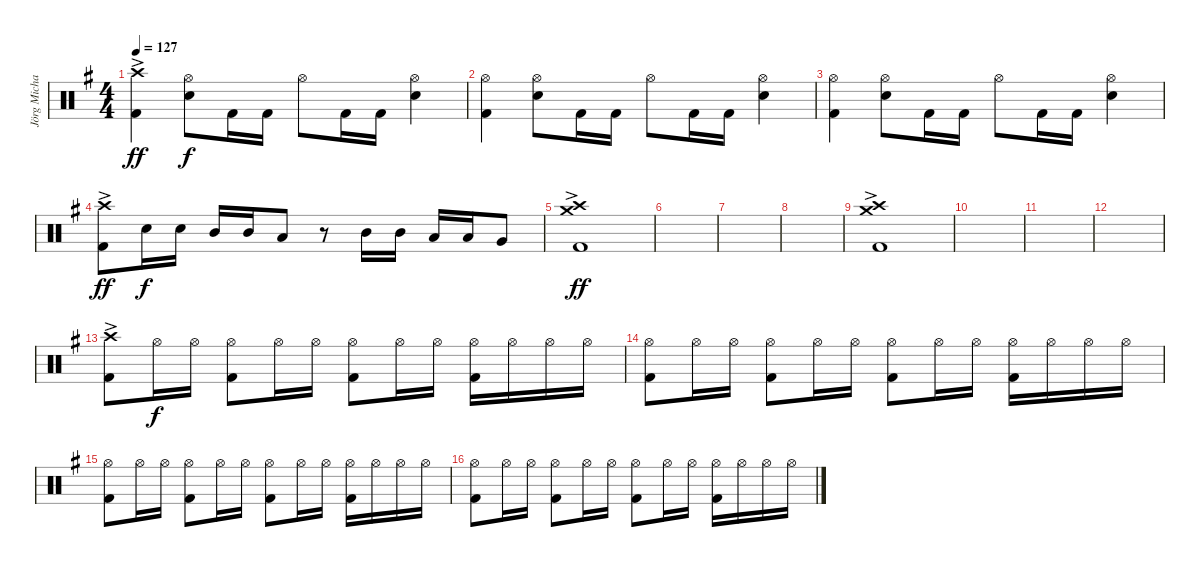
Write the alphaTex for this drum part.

\track ("Jörg Michael" "Jörg Micha") {instrument percussion}
\staff {score}
\articulation defaults
\ts (4 4)
\tempo 127
\clef neutral
\ks g
("Crash high (hit)"{ac} "Kick (hit) 2"{ac}).4{dy ff} ("Hi-Hat (open)" "Electric Snare (hit)").8{dy f} "Kick (hit) 2".16 "Kick (hit) 2".16 "Hi-Hat (open)".8 "Kick (hit) 2".16 "Kick (hit) 2".16 ("Hi-Hat (open)" "Electric Snare (hit)").4 |
("Hi-Hat (open)" "Kick (hit) 2").4 ("Hi-Hat (open)" "Electric Snare (hit)").8 "Kick (hit) 2".16 "Kick (hit) 2".16 "Hi-Hat (open)".8 "Kick (hit) 2".16 "Kick (hit) 2".16 ("Hi-Hat (open)" "Electric Snare (hit)").4 |
("Hi-Hat (open)" "Kick (hit) 2").4 ("Hi-Hat (open)" "Electric Snare (hit)").8 "Kick (hit) 2".16 "Kick (hit) 2".16 "Hi-Hat (open)".8 "Kick (hit) 2".16 "Kick (hit) 2".16 ("Hi-Hat (open)" "Electric Snare (hit)").4 |
("Crash high (hit)"{ac} "Kick (hit) 2"{ac}).8{dy ff} "Electric Snare (hit)".16{dy f} "Electric Snare (hit)".16 "Mid Tom (hit)".16 "Mid Tom (hit)".16 "Low Tom (hit)".8 r.8 "Mid Tom (hit)".16 "Mid Tom (hit)".16 "Low Tom (hit)".16 "Low Tom (hit)".16 "Very Low Tom (hit)".8 |
("Crash high (hit)"{ac} "Kick (hit) 2"{ac} "Crash medium (hit)"{ac}).1{dy ff} |
|
|
|
("Crash high (hit)"{ac} "Kick (hit) 2"{ac} "Crash medium (hit)"{ac}).1 |
|
|
|
("Crash high (hit)"{ac} "Kick (hit) 2"{ac}).8 "Hi-Hat (open)".16{dy f} "Hi-Hat (open)".16 ("Hi-Hat (open)" "Kick (hit) 2").8 "Hi-Hat (open)".16 "Hi-Hat (open)".16 ("Hi-Hat (open)" "Kick (hit) 2").8 "Hi-Hat (open)".16 "Hi-Hat (open)".16 ("Hi-Hat (open)" "Kick (hit) 2").16 "Hi-Hat (open)".16 "Hi-Hat (open)".16 "Hi-Hat (open)".16 |
("Hi-Hat (open)" "Kick (hit) 2").8 "Hi-Hat (open)".16 "Hi-Hat (open)".16 ("Hi-Hat (open)" "Kick (hit) 2").8 "Hi-Hat (open)".16 "Hi-Hat (open)".16 ("Hi-Hat (open)" "Kick (hit) 2").8 "Hi-Hat (open)".16 "Hi-Hat (open)".16 ("Hi-Hat (open)" "Kick (hit) 2").16 "Hi-Hat (open)".16 "Hi-Hat (open)".16 "Hi-Hat (open)".16 |
("Hi-Hat (open)" "Kick (hit) 2").8 "Hi-Hat (open)".16 "Hi-Hat (open)".16 ("Hi-Hat (open)" "Kick (hit) 2").8 "Hi-Hat (open)".16 "Hi-Hat (open)".16 ("Hi-Hat (open)" "Kick (hit) 2").8 "Hi-Hat (open)".16 "Hi-Hat (open)".16 ("Hi-Hat (open)" "Kick (hit) 2").16 "Hi-Hat (open)".16 "Hi-Hat (open)".16 "Hi-Hat (open)".16 |
("Hi-Hat (open)" "Kick (hit) 2").8 "Hi-Hat (open)".16 "Hi-Hat (open)".16 ("Hi-Hat (open)" "Kick (hit) 2").8 "Hi-Hat (open)".16 "Hi-Hat (open)".16 ("Hi-Hat (open)" "Kick (hit) 2").8 "Hi-Hat (open)".16 "Hi-Hat (open)".16 ("Hi-Hat (open)" "Kick (hit) 2").16 "Hi-Hat (open)".16 "Hi-Hat (open)".16 "Hi-Hat (open)".16
